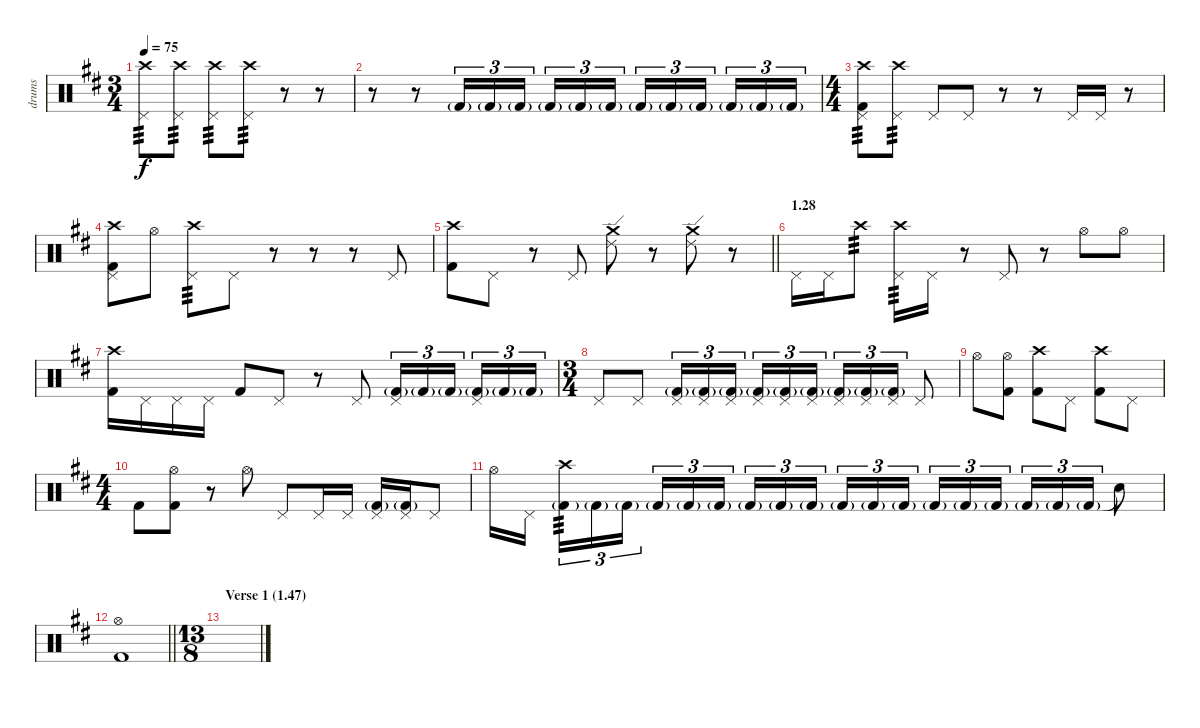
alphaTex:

\track ("drums" "drums") {instrument percussion}
\staff {score}
\articulation defaults
\ts (3 4)
\tempo 75
\clef neutral
\ks d
("Pedal Hi-Hat (hit)" "Crash high (hit)").8{tp 3 dy f} ("Pedal Hi-Hat (hit)" "Crash high (hit)").8{tp 3} ("Pedal Hi-Hat (hit)" "Crash high (hit)").8{tp 3} ("Pedal Hi-Hat (hit)" "Crash high (hit)").8{tp 3} r.8 r.8 |
r.8 r.8 "Kick (hit) 2"{g}.16{tu (3 2)} "Kick (hit) 2"{g}.16{tu (3 2)} "Kick (hit) 2"{g}.16{tu (3 2) beam splitsecondary} "Kick (hit) 2"{g}.16{tu (3 2)} "Kick (hit) 2"{g}.16{tu (3 2)} "Kick (hit) 2"{g}.16{tu (3 2)} "Kick (hit) 2"{g}.16{tu (3 2)} "Kick (hit) 2"{g}.16{tu (3 2)} "Kick (hit) 2"{g}.16{tu (3 2) beam splitsecondary} "Kick (hit) 2"{g}.16{tu (3 2)} "Kick (hit) 2"{g}.16{tu (3 2)} "Kick (hit) 2"{g}.16{tu (3 2)} |
\ts (4 4)
("Pedal Hi-Hat (hit)" "Crash high (hit)" "Kick (hit) 2").8{tp 3} ("Pedal Hi-Hat (hit)" "Crash high (hit)").8{tp 3} "Pedal Hi-Hat (hit)".8 "Pedal Hi-Hat (hit)".8 r.8 r.8 "Pedal Hi-Hat (hit)".16 "Pedal Hi-Hat (hit)".16 r.8 |
("Pedal Hi-Hat (hit)" "Crash high (hit)" "Kick (hit) 2").8 "Hi-Hat (open)".8 ("Pedal Hi-Hat (hit)" "Crash high (hit)").8{tp 3} "Pedal Hi-Hat (hit)".8 r.8 r.8 r.8 "Pedal Hi-Hat (hit)".8 |
\barLineRight lightlight
("Crash high (hit)" "Kick (hit) 2").8 "Pedal Hi-Hat (hit)".8 r.8 "Pedal Hi-Hat (hit)".8 ("Ride (edge) 2" "Crash medium (hit)").8 r.8 ("Ride (edge) 2" "Crash medium (hit)").8 r.8 |
\section ("" "1.28")
"Pedal Hi-Hat (hit)".16 "Pedal Hi-Hat (hit)".16 "Crash high (hit)".8{tp 3} ("Pedal Hi-Hat (hit)" "Crash high (hit)").16{tp 3} "Pedal Hi-Hat (hit)".16 r.8 "Pedal Hi-Hat (hit)".8 r.8 "Hi-Hat (open)".8 "Hi-Hat (open)".8 |
("Crash high (hit)" "Kick (hit) 2").16 "Pedal Hi-Hat (hit)".16 "Pedal Hi-Hat (hit)".16 "Pedal Hi-Hat (hit)".16 "Kick (hit) 2".8 "Pedal Hi-Hat (hit)".8 r.8 "Pedal Hi-Hat (hit)".8 ("Pedal Hi-Hat (hit)" "Kick (hit) 2"{g}).16{tu (3 2)} "Kick (hit) 2"{g}.16{tu (3 2)} "Kick (hit) 2"{g}.16{tu (3 2) beam splitsecondary} ("Pedal Hi-Hat (hit)" "Kick (hit) 2"{g}).16{tu (3 2)} "Kick (hit) 2"{g}.16{tu (3 2)} "Kick (hit) 2"{g}.16{tu (3 2)} |
\ts (3 4)
"Pedal Hi-Hat (hit)".8 "Pedal Hi-Hat (hit)".8 ("Pedal Hi-Hat (hit)" "Kick (hit) 2"{g}).16{tu (3 2)} ("Pedal Hi-Hat (hit)" "Kick (hit) 2"{g}).16{tu (3 2)} ("Pedal Hi-Hat (hit)" "Kick (hit) 2"{g}).16{tu (3 2) beam splitsecondary} ("Pedal Hi-Hat (hit)" "Kick (hit) 2"{g}).16{tu (3 2)} ("Pedal Hi-Hat (hit)" "Kick (hit) 2"{g}).16{tu (3 2)} ("Pedal Hi-Hat (hit)" "Kick (hit) 2"{g}).16{tu (3 2)} ("Pedal Hi-Hat (hit)" "Kick (hit) 2"{g}).16{tu (3 2)} ("Pedal Hi-Hat (hit)" "Kick (hit) 2"{g}).16{tu (3 2)} ("Pedal Hi-Hat (hit)" "Kick (hit) 2"{g}).16{tu (3 2)} "Pedal Hi-Hat (hit)".8 |
"Hi-Hat (open)".8 ("Hi-Hat (open)" "Kick (hit) 2").8 ("Crash high (hit)" "Kick (hit) 2").8 "Pedal Hi-Hat (hit)".8 ("Crash high (hit)" "Kick (hit) 2").8 "Pedal Hi-Hat (hit)".8 |
\ts (4 4)
"Kick (hit) 2".8 ("Hi-Hat (open)" "Kick (hit) 2").8 r.8 "Hi-Hat (open)".8 "Pedal Hi-Hat (hit)".8 "Pedal Hi-Hat (hit)".16 "Pedal Hi-Hat (hit)".16 ("Pedal Hi-Hat (hit)" "Kick (hit) 2"{g}).16 ("Pedal Hi-Hat (hit)" "Kick (hit) 2"{g}).16 "Pedal Hi-Hat (hit)".8 |
"Hi-Hat (open)".16 "Pedal Hi-Hat (hit)".16{beam splitsecondary} ("Crash high (hit)" "Kick (hit) 2"{g}).16{tu (3 2) tp 3} "Kick (hit) 2"{g}.16{tu (3 2)} "Kick (hit) 2"{g}.16{tu (3 2)} "Kick (hit) 2"{g}.16{tu (3 2)} "Kick (hit) 2"{g}.16{tu (3 2)} "Kick (hit) 2"{g}.16{tu (3 2) beam splitsecondary} "Kick (hit) 2"{g}.16{tu (3 2)} "Kick (hit) 2"{g}.16{tu (3 2)} "Kick (hit) 2"{g}.16{tu (3 2)} "Kick (hit) 2"{g}.16{tu (3 2)} "Kick (hit) 2"{g}.16{tu (3 2)} "Kick (hit) 2"{g}.16{tu (3 2) beam splitsecondary} "Kick (hit) 2"{g}.16{tu (3 2)} "Kick (hit) 2"{g}.16{tu (3 2)} "Kick (hit) 2"{g}.16{tu (3 2)} "Kick (hit) 2"{g}.16{tu (3 2)} "Kick (hit) 2"{g}.16{tu (3 2)} "Kick (hit) 2"{g}.16{tu (3 2)} "Snare (hit)"{t}.8 |
\barLineRight lightlight
("Hi-Hat (open)" "Kick (hit) 2").1 |
\ts (13 8)
\section ("" "Verse 1 (1.47)")
